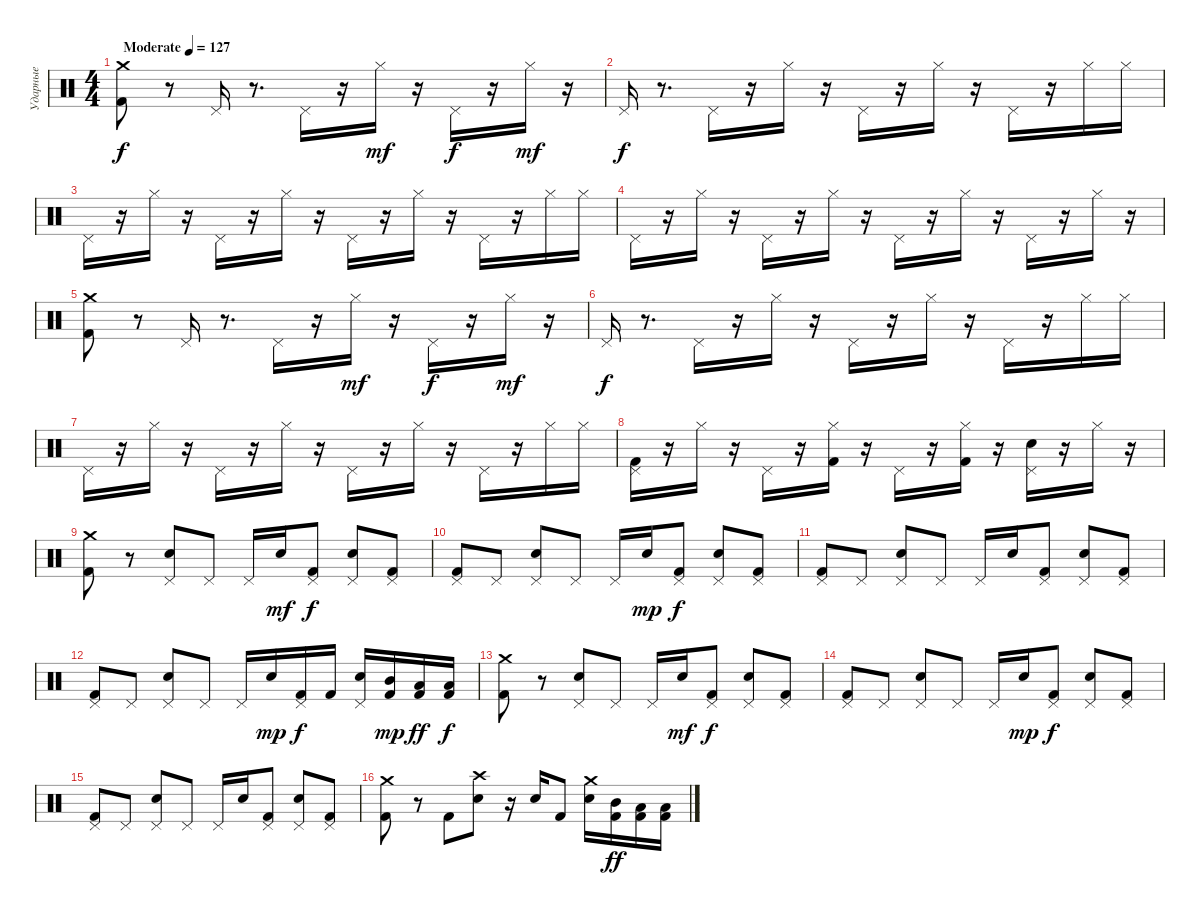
\track ("Ударные" "Ударные") {instrument percussion}
\staff {score}
\articulation defaults
\ts (4 4)
\tempo (127 "Moderate")
\clef neutral
\ks c
("Kick (hit) 2" "Crash medium (hit)").8{dy f} r.8 "Pedal Hi-Hat (hit)".16 r.8{d} "Pedal Hi-Hat (hit)".16 r.16 "Hi-Hat (closed)".16{dy mf} r.16 "Pedal Hi-Hat (hit)".16{dy f} r.16 "Hi-Hat (closed)".16{dy mf} r.16 |
"Pedal Hi-Hat (hit)".16{dy f} r.8{d} "Pedal Hi-Hat (hit)".16 r.16 "Hi-Hat (closed)".16 r.16 "Pedal Hi-Hat (hit)".16 r.16 "Hi-Hat (closed)".16 r.16 "Pedal Hi-Hat (hit)".16 r.16 "Hi-Hat (closed)".16 "Hi-Hat (closed)".16 |
"Pedal Hi-Hat (hit)".16 r.16 "Hi-Hat (closed)".16 r.16 "Pedal Hi-Hat (hit)".16 r.16 "Hi-Hat (closed)".16 r.16 "Pedal Hi-Hat (hit)".16 r.16 "Hi-Hat (closed)".16 r.16 "Pedal Hi-Hat (hit)".16 r.16 "Hi-Hat (closed)".16 "Hi-Hat (closed)".16 |
"Pedal Hi-Hat (hit)".16 r.16 "Hi-Hat (closed)".16 r.16 "Pedal Hi-Hat (hit)".16 r.16 "Hi-Hat (closed)".16 r.16 "Pedal Hi-Hat (hit)".16 r.16 "Hi-Hat (closed)".16 r.16 "Pedal Hi-Hat (hit)".16 r.16 "Hi-Hat (closed)".16 r.16 |
("Crash medium (hit)" "Kick (hit) 2").8 r.8 "Pedal Hi-Hat (hit)".16 r.8{d} "Pedal Hi-Hat (hit)".16 r.16 "Hi-Hat (closed)".16{dy mf} r.16 "Pedal Hi-Hat (hit)".16{dy f} r.16 "Hi-Hat (closed)".16{dy mf} r.16 |
"Pedal Hi-Hat (hit)".16{dy f} r.8{d} "Pedal Hi-Hat (hit)".16 r.16 "Hi-Hat (closed)".16 r.16 "Pedal Hi-Hat (hit)".16 r.16 "Hi-Hat (closed)".16 r.16 "Pedal Hi-Hat (hit)".16 r.16 "Hi-Hat (closed)".16 "Hi-Hat (closed)".16 |
"Pedal Hi-Hat (hit)".16 r.16 "Hi-Hat (closed)".16 r.16 "Pedal Hi-Hat (hit)".16 r.16 "Hi-Hat (closed)".16 r.16 "Pedal Hi-Hat (hit)".16 r.16 "Hi-Hat (closed)".16 r.16 "Pedal Hi-Hat (hit)".16 r.16 "Hi-Hat (closed)".16 "Hi-Hat (closed)".16 |
("Pedal Hi-Hat (hit)" "Kick (hit) 2").16 r.16 "Hi-Hat (closed)".16 r.16 "Pedal Hi-Hat (hit)".16 r.16 ("Kick (hit) 2" "Hi-Hat (closed)").16 r.16 "Pedal Hi-Hat (hit)".16 r.16 ("Kick (hit) 2" "Hi-Hat (closed)").16 r.16 ("Snare (hit) 2" "Pedal Hi-Hat (hit)").16 r.16 "Hi-Hat (closed)".16 r.16 |
("Crash medium (hit)" "Kick (hit) 2").8 r.8 ("Pedal Hi-Hat (hit)" "Snare (hit) 2").8 "Pedal Hi-Hat (hit)".8 "Pedal Hi-Hat (hit)".16 "Electric Snare (hit)".16{dy mf} ("Pedal Hi-Hat (hit)" "Kick (hit) 2").8{dy f} ("Snare (hit) 2" "Pedal Hi-Hat (hit)").8 ("Kick (hit) 2" "Pedal Hi-Hat (hit)").8 |
("Pedal Hi-Hat (hit)" "Kick (hit) 2").8 "Pedal Hi-Hat (hit)".8 ("Pedal Hi-Hat (hit)" "Snare (hit) 2").8 "Pedal Hi-Hat (hit)".8 "Pedal Hi-Hat (hit)".16 "Electric Snare (hit)".16{dy mp} ("Kick (hit) 2" "Pedal Hi-Hat (hit)").8{dy f} ("Snare (hit) 2" "Pedal Hi-Hat (hit)").8 ("Kick (hit) 2" "Pedal Hi-Hat (hit)").8 |
("Pedal Hi-Hat (hit)" "Kick (hit) 2").8 "Pedal Hi-Hat (hit)".8 ("Pedal Hi-Hat (hit)" "Snare (hit) 2").8 "Pedal Hi-Hat (hit)".8 "Pedal Hi-Hat (hit)".16 "Snare (hit) 2".16 ("Kick (hit) 2" "Pedal Hi-Hat (hit)").8 ("Snare (hit) 2" "Pedal Hi-Hat (hit)").8 ("Pedal Hi-Hat (hit)" "Kick (hit) 2").8 |
("Pedal Hi-Hat (hit)" "Kick (hit) 2").8 "Pedal Hi-Hat (hit)".8 ("Snare (hit) 2" "Pedal Hi-Hat (hit)").8 "Pedal Hi-Hat (hit)".8 "Pedal Hi-Hat (hit)".16 "Electric Snare (hit)".16{dy mp} ("Kick (hit) 2" "Pedal Hi-Hat (hit)").16{dy f} "Kick (hit) 2".16 ("Snare (hit) 2" "Pedal Hi-Hat (hit)").16 ("Mid Tom (hit)" "Kick (hit) 2").16{dy mp} ("Kick (hit) 2" "Low Tom (hit)").16{dy ff} ("Kick (hit) 2" "Low Floor Tom (hit)").16{dy f} |
("Crash medium (hit)" "Kick (hit) 2").8 r.8 ("Pedal Hi-Hat (hit)" "Snare (hit) 2").8 "Pedal Hi-Hat (hit)".8 "Pedal Hi-Hat (hit)".16 "Electric Snare (hit)".16{dy mf} ("Kick (hit) 2" "Pedal Hi-Hat (hit)").8{dy f} ("Pedal Hi-Hat (hit)" "Snare (hit) 2").8 ("Pedal Hi-Hat (hit)" "Kick (hit) 2").8 |
("Pedal Hi-Hat (hit)" "Kick (hit) 2").8 "Pedal Hi-Hat (hit)".8 ("Pedal Hi-Hat (hit)" "Snare (hit) 2").8 "Pedal Hi-Hat (hit)".8 "Pedal Hi-Hat (hit)".16 "Electric Snare (hit)".16{dy mp} ("Kick (hit) 2" "Pedal Hi-Hat (hit)").8{dy f} ("Pedal Hi-Hat (hit)" "Snare (hit) 2").8 ("Kick (hit) 2" "Pedal Hi-Hat (hit)").8 |
("Kick (hit) 2" "Pedal Hi-Hat (hit)").8 "Pedal Hi-Hat (hit)".8 ("Pedal Hi-Hat (hit)" "Snare (hit) 2").8 "Pedal Hi-Hat (hit)".8 "Pedal Hi-Hat (hit)".16 "Snare (hit) 2".16 ("Pedal Hi-Hat (hit)" "Kick (hit) 2").8 ("Pedal Hi-Hat (hit)" "Snare (hit) 2").8 ("Pedal Hi-Hat (hit)" "Kick (hit) 2").8 |
("Crash medium (hit)" "Kick (hit) 2").8 r.8 "Kick (hit) 2".8 ("Crash high (hit)" "Snare (hit) 2").8 r.16 "Electric Snare (hit)".16 "Kick (hit) 2".8 ("Crash medium (hit)" "Snare (hit) 2").16 ("Kick (hit) 2" "Mid Tom (hit)").16{dy ff} ("Kick (hit) 2" "Low Tom (hit)").16 ("Kick (hit) 2" "Low Floor Tom (hit)").16
